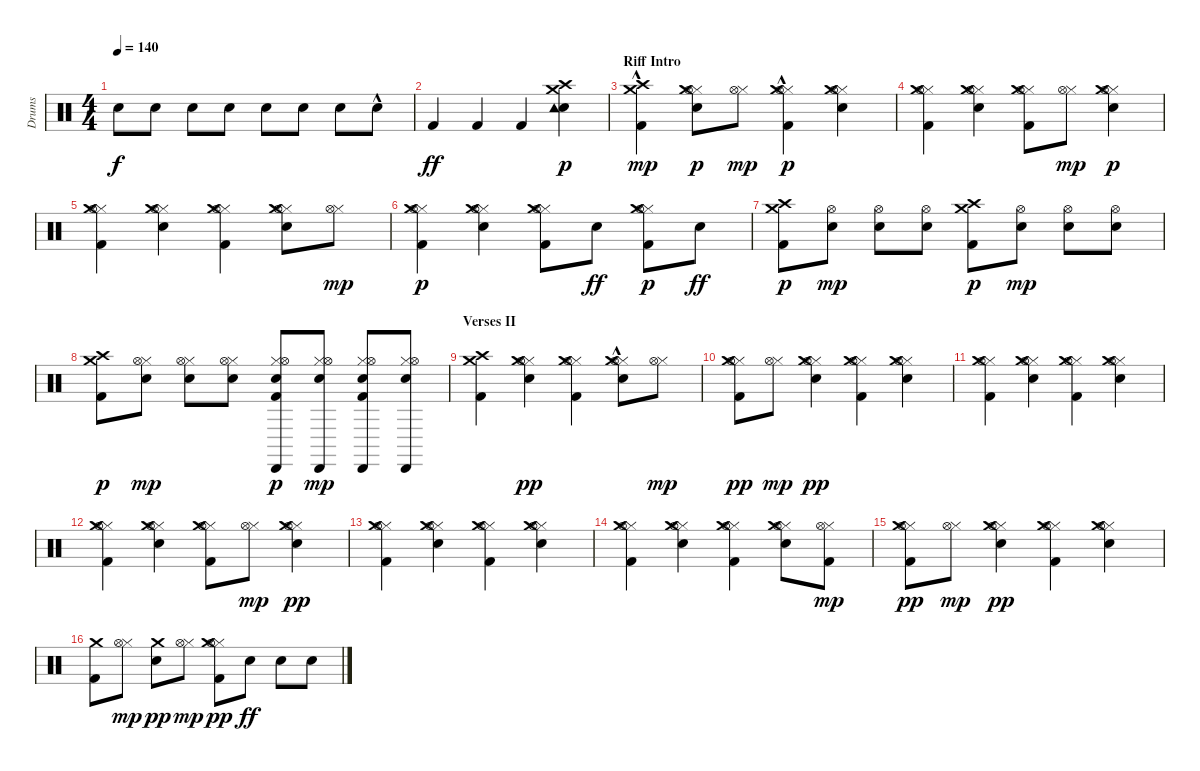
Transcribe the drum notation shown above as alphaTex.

\track ("Drums" "Drums") {instrument percussion}
\staff {score}
\articulation defaults
\ts (4 4)
\tempo 140
\clef neutral
\ks c "Snare (hit) 2".8{dy f} "Snare (hit) 2".8 "Snare (hit) 2".8 "Snare (hit) 2".8 "Snare (hit) 2".8 "Snare (hit) 2".8 "Snare (hit) 2".8 "Snare (hit) 2"{hac}.8
|
"Kick (hit) 2".4{dy ff} "Kick (hit) 2".4 "Kick (hit) 2".4 ("Snare (hit) 2" "Crash high (hit)" "Tambourine (hit)" "Crash medium (hit)").4{dy p} |
\section ("" "Riff Intro")
("Kick (hit) 2" "Crash high (hit)"{hac} "Crash medium (hit)").4{dy mp} ("Snare (hit) 2" "Hi-Hat (closed)" "Hi-Hat (open)" "Crash medium (hit)").8{dy p} ("Hi-Hat (closed)" "Hi-Hat (open)").8{dy mp} ("Kick (hit) 2"{hac} "Hi-Hat (closed)" "Hi-Hat (open)" "Crash medium (hit)").4{dy p} ("Snare (hit) 2" "Hi-Hat (closed)" "Hi-Hat (open)" "Crash medium (hit)").4 |
("Kick (hit) 2" "Hi-Hat (closed)" "Hi-Hat (open)" "Crash medium (hit)").4 ("Snare (hit) 2" "Hi-Hat (closed)" "Hi-Hat (open)" "Crash medium (hit)").4 ("Kick (hit) 2" "Hi-Hat (closed)" "Hi-Hat (open)" "Crash medium (hit)").8 ("Hi-Hat (closed)" "Hi-Hat (open)").8{dy mp} ("Snare (hit) 2" "Hi-Hat (closed)" "Hi-Hat (open)" "Crash medium (hit)").4{dy p} |
("Kick (hit) 2" "Hi-Hat (closed)" "Hi-Hat (open)" "Crash medium (hit)").4 ("Snare (hit) 2" "Hi-Hat (closed)" "Hi-Hat (open)" "Crash medium (hit)").4 ("Kick (hit) 2" "Hi-Hat (closed)" "Hi-Hat (open)" "Crash medium (hit)").4 ("Snare (hit) 2" "Hi-Hat (closed)" "Hi-Hat (open)" "Crash medium (hit)").8 ("Hi-Hat (closed)" "Hi-Hat (open)").8{dy mp} |
("Kick (hit) 2" "Hi-Hat (closed)" "Hi-Hat (open)" "Crash medium (hit)").4{dy p} ("Snare (hit) 2" "Hi-Hat (closed)" "Hi-Hat (open)" "Crash medium (hit)").4 ("Kick (hit) 2" "Hi-Hat (closed)" "Hi-Hat (open)" "Crash medium (hit)").8 "Snare (hit) 2".8{dy ff} ("Kick (hit) 2" "Hi-Hat (closed)" "Hi-Hat (open)" "Crash medium (hit)").8{dy p} "Snare (hit) 2".8{dy ff} |
("Kick (hit) 2" "Crash high (hit)" "Crash medium (hit)").8{dy p} ("Snare (hit) 2" "Hi-Hat (open)").8{dy mp} ("Snare (hit) 2" "Hi-Hat (open)").8 ("Snare (hit) 2" "Hi-Hat (open)").8 ("Kick (hit) 2" "Crash high (hit)" "Crash medium (hit)").8{dy p} ("Snare (hit) 2" "Hi-Hat (open)").8{dy mp} ("Snare (hit) 2" "Hi-Hat (open)").8 ("Snare (hit) 2" "Hi-Hat (open)").8 |
("Kick (hit) 2" "Crash high (hit)" "Crash medium (hit)").8{dy p} ("Snare (hit) 2" "Hi-Hat (closed)" "Hi-Hat (open)").8{dy mp} ("Snare (hit) 2" "Hi-Hat (closed)" "Hi-Hat (open)").8 ("Snare (hit) 2" "Hi-Hat (closed)" "Hi-Hat (open)").8 ("Kick (hit) 2" "Hi-Hat (closed)" "Hi-Hat (open)" "Snare (hit) 2" "Cabasa (hit)").8{dy p} ("Hi-Hat (closed)" "Hi-Hat (open)" "Snare (hit) 2" "Cabasa (hit)").8{dy mp} ("Kick (hit) 2" "Hi-Hat (closed)" "Hi-Hat (open)" "Snare (hit) 2" "Cabasa (hit)").8 ("Hi-Hat (closed)" "Hi-Hat (open)" "Snare (hit) 2" "Cabasa (hit)").8 |
\section ("" "Verses II")
("Kick (hit) 2" "Crash high (hit)" "Crash medium (hit)").4 ("Snare (hit) 2" "Hi-Hat (closed)" "Hi-Hat (open)" "Crash medium (hit)").4{dy pp} ("Kick (hit) 2" "Hi-Hat (closed)" "Hi-Hat (open)" "Crash medium (hit)").4 ("Snare (hit) 2"{hac} "Hi-Hat (closed)" "Hi-Hat (open)" "Crash medium (hit)").8 ("Hi-Hat (closed)" "Hi-Hat (open)").8{dy mp} |
("Kick (hit) 2" "Hi-Hat (closed)" "Hi-Hat (open)" "Crash medium (hit)").8{dy pp} ("Hi-Hat (closed)" "Hi-Hat (open)").8{dy mp} ("Snare (hit) 2" "Hi-Hat (closed)" "Hi-Hat (open)" "Crash medium (hit)").4{dy pp} ("Kick (hit) 2" "Hi-Hat (closed)" "Hi-Hat (open)" "Crash medium (hit)").4 ("Snare (hit) 2" "Hi-Hat (closed)" "Hi-Hat (open)" "Crash medium (hit)").4 |
("Kick (hit) 2" "Hi-Hat (closed)" "Hi-Hat (open)" "Crash medium (hit)").4 ("Snare (hit) 2" "Hi-Hat (closed)" "Hi-Hat (open)" "Crash medium (hit)").4 ("Kick (hit) 2" "Hi-Hat (closed)" "Hi-Hat (open)" "Crash medium (hit)").4 ("Snare (hit) 2" "Hi-Hat (closed)" "Hi-Hat (open)" "Crash medium (hit)").4 |
("Kick (hit) 2" "Hi-Hat (closed)" "Hi-Hat (open)" "Crash medium (hit)").4 ("Snare (hit) 2" "Hi-Hat (closed)" "Hi-Hat (open)" "Crash medium (hit)").4 ("Kick (hit) 2" "Hi-Hat (closed)" "Hi-Hat (open)" "Crash medium (hit)").8 ("Hi-Hat (closed)" "Hi-Hat (open)").8{dy mp} ("Snare (hit) 2" "Hi-Hat (closed)" "Hi-Hat (open)" "Crash medium (hit)").4{dy pp} |
("Kick (hit) 2" "Hi-Hat (closed)" "Hi-Hat (open)" "Crash medium (hit)").4 ("Snare (hit) 2" "Hi-Hat (closed)" "Hi-Hat (open)" "Crash medium (hit)").4 ("Kick (hit) 2" "Hi-Hat (closed)" "Hi-Hat (open)" "Crash medium (hit)").4 ("Snare (hit) 2" "Hi-Hat (closed)" "Hi-Hat (open)" "Crash medium (hit)").4 |
("Kick (hit) 2" "Hi-Hat (closed)" "Hi-Hat (open)" "Crash medium (hit)").4 ("Snare (hit) 2" "Hi-Hat (closed)" "Hi-Hat (open)" "Crash medium (hit)").4 ("Kick (hit) 2" "Hi-Hat (closed)" "Hi-Hat (open)" "Crash medium (hit)").4 ("Snare (hit) 2" "Hi-Hat (closed)" "Hi-Hat (open)" "Crash medium (hit)").8 ("Kick (hit) 2" "Hi-Hat (closed)" "Hi-Hat (open)").8{dy mp} |
("Kick (hit) 2" "Hi-Hat (closed)" "Hi-Hat (open)" "Crash medium (hit)").8{dy pp} ("Hi-Hat (closed)" "Hi-Hat (open)").8{dy mp} ("Snare (hit) 2" "Hi-Hat (closed)" "Hi-Hat (open)" "Crash medium (hit)").4{dy pp} ("Kick (hit) 2" "Hi-Hat (closed)" "Hi-Hat (open)" "Crash medium (hit)").4 ("Snare (hit) 2" "Hi-Hat (closed)" "Hi-Hat (open)" "Crash medium (hit)").4 |
("Kick (hit) 2" "Crash medium (hit)").8 ("Hi-Hat (closed)" "Hi-Hat (open)").8{dy mp} ("Snare (hit) 2" "Crash medium (hit)").8{dy pp} ("Hi-Hat (closed)" "Hi-Hat (open)").8{dy mp} ("Kick (hit) 2" "Hi-Hat (closed)" "Hi-Hat (open)" "Crash medium (hit)").8{dy pp} "Snare (hit) 2".8{dy ff} "Snare (hit) 2".8 "Snare (hit) 2".8
